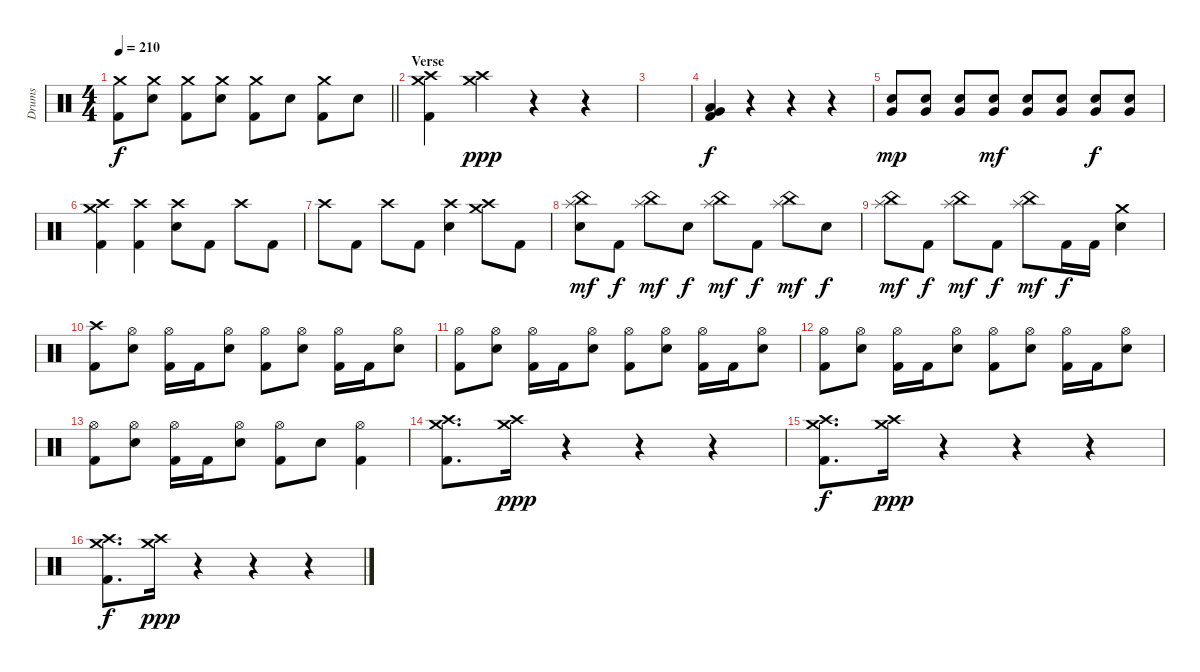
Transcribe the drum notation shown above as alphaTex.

\track ("Drums" "Drums") {instrument percussion}
\staff {score}
\articulation defaults
\ts (4 4)
\tempo 210
\clef neutral
\barLineRight lightlight
\ks c
("Kick (hit) 2" "Crash medium (hit)").8{dy f} ("Electric Snare (hit)" "Crash medium (hit)").8 ("Kick (hit) 2" "Crash medium (hit)").8 ("Electric Snare (hit)" "Crash medium (hit)").8 ("Kick (hit) 2" "Crash medium (hit)").8 "Electric Snare (hit)".8 ("Kick (hit) 2" "Crash medium (hit)").8 "Electric Snare (hit)".8 |
\section ("" "Verse")
("Kick (hit) 2" "Crash high (hit)" "Crash medium (hit)").4 ("Crash high (hit)" "Crash medium (hit)").4{dy ppp} r.4 r.4 |
|
("Kick (hit) 2" "Low Floor Tom (hit)" "Very Low Tom (hit)").4{dy f} r.4 r.4 r.4 |
("Electric Snare (hit)" "Very Low Tom (hit)").8{dy mp} ("Electric Snare (hit)" "Very Low Tom (hit)").8 ("Electric Snare (hit)" "Very Low Tom (hit)").8 ("Electric Snare (hit)" "Very Low Tom (hit)").8{dy mf} ("Electric Snare (hit)" "Very Low Tom (hit)").8 ("Electric Snare (hit)" "Very Low Tom (hit)").8 ("Electric Snare (hit)" "Very Low Tom (hit)").8{dy f} ("Electric Snare (hit)" "Very Low Tom (hit)").8 |
("Kick (hit) 2" "Crash high (hit)" "Crash medium (hit)").4 ("Kick (hit) 2" "Crash high (hit)").4 ("Electric Snare (hit)" "Crash high (hit)").8 "Kick (hit) 2".8 "Crash high (hit)".8 "Kick (hit) 2".8 |
"Crash high (hit)".8 "Kick (hit) 2".8 "Crash high (hit)".8 "Kick (hit) 2".8 ("Electric Snare (hit)" "Crash high (hit)").4 ("Crash high (hit)" "Crash medium (hit)").8 "Kick (hit) 2".8 |
("Electric Snare (hit)" "Splash (hit)" "China (hit)").8{dy mf} "Kick (hit) 2".8{dy f} ("Splash (hit)" "China (hit)").8{dy mf} "Electric Snare (hit)".8{dy f} ("Splash (hit)" "China (hit)").8{dy mf} "Kick (hit) 2".8{dy f} ("Splash (hit)" "China (hit)").8{dy mf} "Electric Snare (hit)".8{dy f} |
("Splash (hit)" "China (hit)").8{dy mf} "Kick (hit) 2".8{dy f} ("Splash (hit)" "China (hit)").8{dy mf} "Kick (hit) 2".8{dy f} ("Splash (hit)" "China (hit)").8{dy mf} "Kick (hit) 2".16{dy f} "Kick (hit) 2".16 ("Electric Snare (hit)" "Crash medium (hit)").4 |
("Kick (hit) 2" "Crash high (hit)").8 ("Electric Snare (hit)" "Hi-Hat (open)").8 ("Kick (hit) 2" "Hi-Hat (open)").16 "Kick (hit) 2".16 ("Electric Snare (hit)" "Hi-Hat (open)").8 ("Kick (hit) 2" "Hi-Hat (open)").8 ("Electric Snare (hit)" "Hi-Hat (open)").8 ("Kick (hit) 2" "Hi-Hat (open)").16 "Kick (hit) 2".16 ("Electric Snare (hit)" "Hi-Hat (open)").8 |
("Kick (hit) 2" "Hi-Hat (open)").8 ("Electric Snare (hit)" "Hi-Hat (open)").8 ("Kick (hit) 2" "Hi-Hat (open)").16 "Kick (hit) 2".16 ("Electric Snare (hit)" "Hi-Hat (open)").8 ("Kick (hit) 2" "Hi-Hat (open)").8 ("Electric Snare (hit)" "Hi-Hat (open)").8 ("Kick (hit) 2" "Hi-Hat (open)").16 "Kick (hit) 2".16 ("Electric Snare (hit)" "Hi-Hat (open)").8 |
("Kick (hit) 2" "Hi-Hat (open)").8 ("Electric Snare (hit)" "Hi-Hat (open)").8 ("Kick (hit) 2" "Hi-Hat (open)").16 "Kick (hit) 2".16 ("Electric Snare (hit)" "Hi-Hat (open)").8 ("Kick (hit) 2" "Hi-Hat (open)").8 ("Electric Snare (hit)" "Hi-Hat (open)").8 ("Kick (hit) 2" "Hi-Hat (open)").16 "Kick (hit) 2".16 ("Electric Snare (hit)" "Hi-Hat (open)").8 |
("Kick (hit) 2" "Hi-Hat (open)").8 ("Electric Snare (hit)" "Hi-Hat (open)").8 ("Kick (hit) 2" "Hi-Hat (open)").16 "Kick (hit) 2".16 ("Electric Snare (hit)" "Hi-Hat (open)").8 ("Kick (hit) 2" "Hi-Hat (open)").8 "Electric Snare (hit)".8 ("Kick (hit) 2" "Hi-Hat (open)").4 |
("Kick (hit) 2" "Crash high (hit)" "Crash medium (hit)").8{d} ("Crash high (hit)" "Crash medium (hit)").16{dy ppp} r.4 r.4 r.4 |
("Kick (hit) 2" "Crash high (hit)" "Crash medium (hit)").8{d dy f} ("Crash high (hit)" "Crash medium (hit)").16{dy ppp} r.4 r.4 r.4 |
("Kick (hit) 2" "Crash high (hit)" "Crash medium (hit)").8{d dy f} ("Crash high (hit)" "Crash medium (hit)").16{dy ppp} r.4 r.4 r.4
